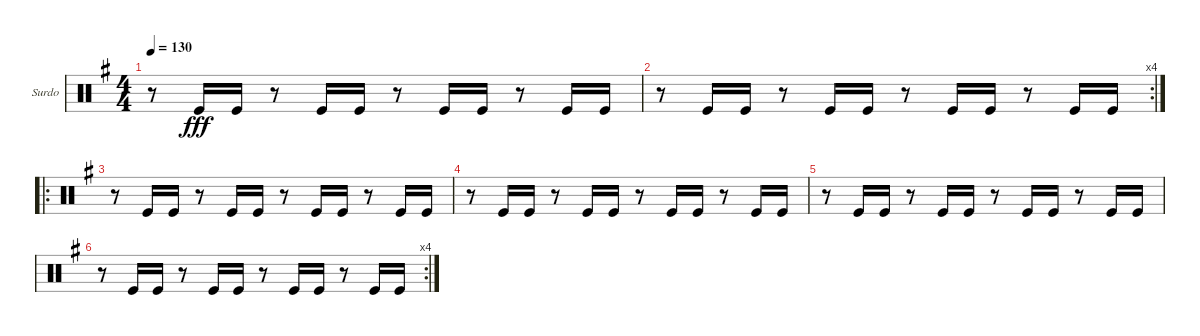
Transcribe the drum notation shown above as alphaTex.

\bracketExtendMode groupsimilarinstruments
\firstSystemTrackNameOrientation horizontal
\otherSystemsTrackNameOrientation horizontal
\track ("Surdo" "Surdo") {instrument percussion}
\staff {score}
\articulation defaults
\ts (4 4)
\tempo 130
\clef neutral
\ks eminor
r.8{dy fff} "Kick (hit)".16 "Kick (hit)".16 r.8 "Kick (hit)".16 "Kick (hit)".16 r.8 "Kick (hit)".16 "Kick (hit)".16 r.8 "Kick (hit)".16 "Kick (hit)".16 |
\rc 4
r.8 "Kick (hit)".16 "Kick (hit)".16 r.8 "Kick (hit)".16 "Kick (hit)".16 r.8 "Kick (hit)".16 "Kick (hit)".16 r.8 "Kick (hit)".16 "Kick (hit)".16 |
\ro
r.8 "Kick (hit)".16 "Kick (hit)".16 r.8 "Kick (hit)".16 "Kick (hit)".16 r.8 "Kick (hit)".16 "Kick (hit)".16 r.8 "Kick (hit)".16 "Kick (hit)".16 |
r.8 "Kick (hit)".16 "Kick (hit)".16 r.8 "Kick (hit)".16 "Kick (hit)".16 r.8 "Kick (hit)".16 "Kick (hit)".16 r.8 "Kick (hit)".16 "Kick (hit)".16 |
r.8 "Kick (hit)".16 "Kick (hit)".16 r.8 "Kick (hit)".16 "Kick (hit)".16 r.8 "Kick (hit)".16 "Kick (hit)".16 r.8 "Kick (hit)".16 "Kick (hit)".16 |
\rc 4
r.8 "Kick (hit)".16 "Kick (hit)".16 r.8 "Kick (hit)".16 "Kick (hit)".16 r.8 "Kick (hit)".16 "Kick (hit)".16 r.8 "Kick (hit)".16 "Kick (hit)".16
